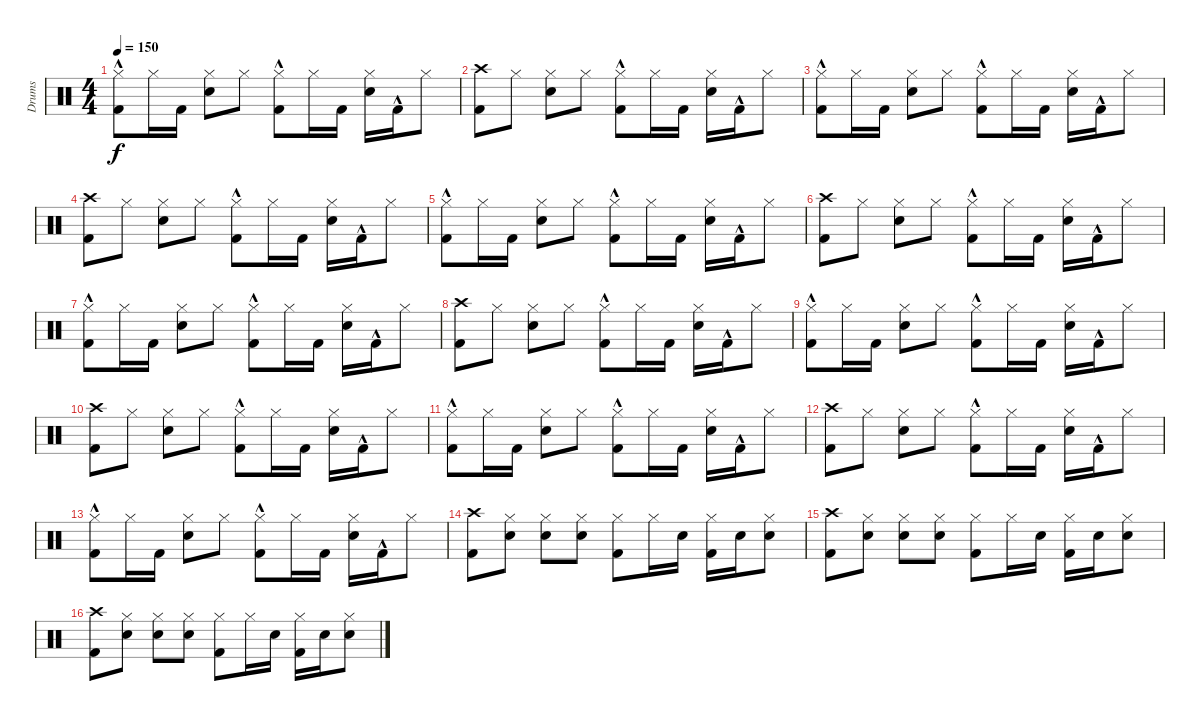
\track ("Drums" "Drums") {instrument percussion}
\staff {score}
\articulation defaults
\ts (4 4)
\tempo 150
\clef neutral
\ks c
("Hi-Hat (closed)" "Kick (hit) 2"{hac}).8{dy f} "Hi-Hat (closed)".16 "Kick (hit) 2".16 ("Hi-Hat (closed)" "Electric Snare (hit)").8 "Hi-Hat (closed)".8 ("Hi-Hat (closed)" "Kick (hit) 2"{hac}).8 "Hi-Hat (closed)".16 "Kick (hit) 2".16 ("Hi-Hat (closed)" "Electric Snare (hit)").16 "Kick (hit) 2"{hac}.16 "Hi-Hat (closed)".8 |
("Crash high (hit)" "Kick (hit) 2").8 "Hi-Hat (closed)".8 ("Hi-Hat (closed)" "Electric Snare (hit)").8 "Hi-Hat (closed)".8 ("Hi-Hat (closed)" "Kick (hit) 2"{hac}).8 "Hi-Hat (closed)".16 "Kick (hit) 2".16 ("Hi-Hat (closed)" "Electric Snare (hit)").16 "Kick (hit) 2"{hac}.16 "Hi-Hat (closed)".8 |
("Hi-Hat (closed)" "Kick (hit) 2"{hac}).8 "Hi-Hat (closed)".16 "Kick (hit) 2".16 ("Hi-Hat (closed)" "Electric Snare (hit)").8 "Hi-Hat (closed)".8 ("Hi-Hat (closed)" "Kick (hit) 2"{hac}).8 "Hi-Hat (closed)".16 "Kick (hit) 2".16 ("Hi-Hat (closed)" "Electric Snare (hit)").16 "Kick (hit) 2"{hac}.16 "Hi-Hat (closed)".8 |
("Crash high (hit)" "Kick (hit) 2").8 "Hi-Hat (closed)".8 ("Hi-Hat (closed)" "Electric Snare (hit)").8 "Hi-Hat (closed)".8 ("Hi-Hat (closed)" "Kick (hit) 2"{hac}).8 "Hi-Hat (closed)".16 "Kick (hit) 2".16 ("Hi-Hat (closed)" "Electric Snare (hit)").16 "Kick (hit) 2"{hac}.16 "Hi-Hat (closed)".8 |
("Hi-Hat (closed)" "Kick (hit) 2"{hac}).8 "Hi-Hat (closed)".16 "Kick (hit) 2".16 ("Hi-Hat (closed)" "Electric Snare (hit)").8 "Hi-Hat (closed)".8 ("Hi-Hat (closed)" "Kick (hit) 2"{hac}).8 "Hi-Hat (closed)".16 "Kick (hit) 2".16 ("Hi-Hat (closed)" "Electric Snare (hit)").16 "Kick (hit) 2"{hac}.16 "Hi-Hat (closed)".8 |
("Crash high (hit)" "Kick (hit) 2").8 "Hi-Hat (closed)".8 ("Hi-Hat (closed)" "Electric Snare (hit)").8 "Hi-Hat (closed)".8 ("Hi-Hat (closed)" "Kick (hit) 2"{hac}).8 "Hi-Hat (closed)".16 "Kick (hit) 2".16 ("Hi-Hat (closed)" "Electric Snare (hit)").16 "Kick (hit) 2"{hac}.16 "Hi-Hat (closed)".8 |
("Hi-Hat (closed)" "Kick (hit) 2"{hac}).8 "Hi-Hat (closed)".16 "Kick (hit) 2".16 ("Hi-Hat (closed)" "Electric Snare (hit)").8 "Hi-Hat (closed)".8 ("Hi-Hat (closed)" "Kick (hit) 2"{hac}).8 "Hi-Hat (closed)".16 "Kick (hit) 2".16 ("Hi-Hat (closed)" "Electric Snare (hit)").16 "Kick (hit) 2"{hac}.16 "Hi-Hat (closed)".8 |
("Crash high (hit)" "Kick (hit) 2").8 "Hi-Hat (closed)".8 ("Hi-Hat (closed)" "Electric Snare (hit)").8 "Hi-Hat (closed)".8 ("Hi-Hat (closed)" "Kick (hit) 2"{hac}).8 "Hi-Hat (closed)".16 "Kick (hit) 2".16 ("Hi-Hat (closed)" "Electric Snare (hit)").16 "Kick (hit) 2"{hac}.16 "Hi-Hat (closed)".8 |
("Hi-Hat (closed)" "Kick (hit) 2"{hac}).8 "Hi-Hat (closed)".16 "Kick (hit) 2".16 ("Hi-Hat (closed)" "Electric Snare (hit)").8 "Hi-Hat (closed)".8 ("Hi-Hat (closed)" "Kick (hit) 2"{hac}).8 "Hi-Hat (closed)".16 "Kick (hit) 2".16 ("Hi-Hat (closed)" "Electric Snare (hit)").16 "Kick (hit) 2"{hac}.16 "Hi-Hat (closed)".8 |
("Crash high (hit)" "Kick (hit) 2").8 "Hi-Hat (closed)".8 ("Hi-Hat (closed)" "Electric Snare (hit)").8 "Hi-Hat (closed)".8 ("Hi-Hat (closed)" "Kick (hit) 2"{hac}).8 "Hi-Hat (closed)".16 "Kick (hit) 2".16 ("Hi-Hat (closed)" "Electric Snare (hit)").16 "Kick (hit) 2"{hac}.16 "Hi-Hat (closed)".8 |
("Hi-Hat (closed)" "Kick (hit) 2"{hac}).8 "Hi-Hat (closed)".16 "Kick (hit) 2".16 ("Hi-Hat (closed)" "Electric Snare (hit)").8 "Hi-Hat (closed)".8 ("Hi-Hat (closed)" "Kick (hit) 2"{hac}).8 "Hi-Hat (closed)".16 "Kick (hit) 2".16 ("Hi-Hat (closed)" "Electric Snare (hit)").16 "Kick (hit) 2"{hac}.16 "Hi-Hat (closed)".8 |
("Crash high (hit)" "Kick (hit) 2").8 "Hi-Hat (closed)".8 ("Hi-Hat (closed)" "Electric Snare (hit)").8 "Hi-Hat (closed)".8 ("Hi-Hat (closed)" "Kick (hit) 2"{hac}).8 "Hi-Hat (closed)".16 "Kick (hit) 2".16 ("Hi-Hat (closed)" "Electric Snare (hit)").16 "Kick (hit) 2"{hac}.16 "Hi-Hat (closed)".8 |
("Hi-Hat (closed)" "Kick (hit) 2"{hac}).8 "Hi-Hat (closed)".16 "Kick (hit) 2".16 ("Hi-Hat (closed)" "Electric Snare (hit)").8 "Hi-Hat (closed)".8 ("Hi-Hat (closed)" "Kick (hit) 2"{hac}).8 "Hi-Hat (closed)".16 "Kick (hit) 2".16 ("Hi-Hat (closed)" "Electric Snare (hit)").16 "Kick (hit) 2"{hac}.16 "Hi-Hat (closed)".8 |
("Crash high (hit)" "Kick (hit) 2").8 ("Hi-Hat (closed)" "Electric Snare (hit)").8 ("Hi-Hat (closed)" "Electric Snare (hit)").8 ("Hi-Hat (closed)" "Electric Snare (hit)").8 ("Hi-Hat (closed)" "Kick (hit) 2").8 "Hi-Hat (closed)".16 "Electric Snare (hit)".16 ("Hi-Hat (closed)" "Kick (hit) 2").16 "Electric Snare (hit)".16 ("Hi-Hat (closed)" "Electric Snare (hit)").8 |
("Crash high (hit)" "Kick (hit) 2").8 ("Hi-Hat (closed)" "Electric Snare (hit)").8 ("Hi-Hat (closed)" "Electric Snare (hit)").8 ("Hi-Hat (closed)" "Electric Snare (hit)").8 ("Hi-Hat (closed)" "Kick (hit) 2").8 "Hi-Hat (closed)".16 "Electric Snare (hit)".16 ("Hi-Hat (closed)" "Kick (hit) 2").16 "Electric Snare (hit)".16 ("Hi-Hat (closed)" "Electric Snare (hit)").8 |
("Crash high (hit)" "Kick (hit) 2").8 ("Hi-Hat (closed)" "Electric Snare (hit)").8 ("Hi-Hat (closed)" "Electric Snare (hit)").8 ("Hi-Hat (closed)" "Electric Snare (hit)").8 ("Hi-Hat (closed)" "Kick (hit) 2").8 "Hi-Hat (closed)".16 "Electric Snare (hit)".16 ("Hi-Hat (closed)" "Kick (hit) 2").16 "Electric Snare (hit)".16 ("Hi-Hat (closed)" "Electric Snare (hit)").8
